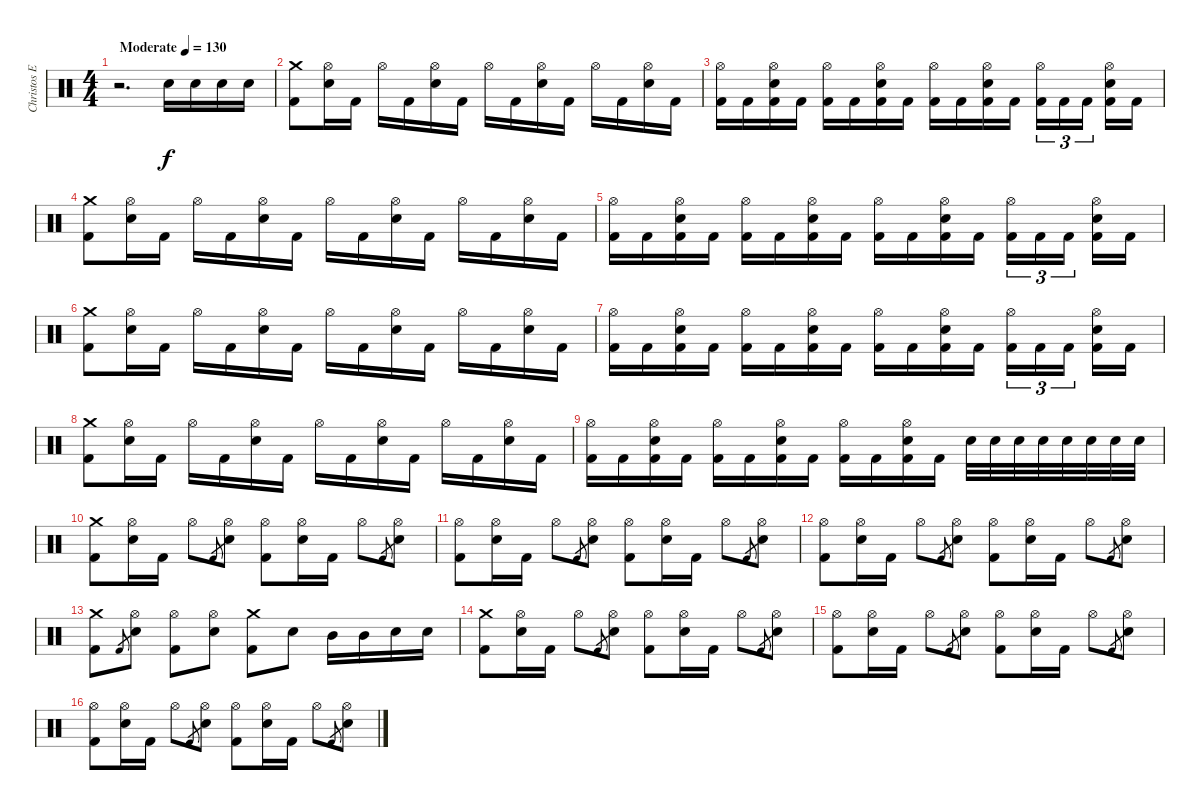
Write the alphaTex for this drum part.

\track ("Christos Efthimiadis" "Christos E") {instrument percussion}
\staff {score}
\articulation defaults
\ts (4 4)
\tempo (130 "Moderate")
\clef neutral
\ks c
r.2{d dy f} "Snare (hit) 2".16 "Snare (hit) 2".16 "Snare (hit) 2".16 "Snare (hit) 2".16 |
("Crash medium (hit)" "Kick (hit) 2").8 ("Hi-Hat (open)" "Snare (hit) 2").16 "Kick (hit) 2".16 "Hi-Hat (open)".16 "Kick (hit) 2".16 ("Hi-Hat (open)" "Snare (hit) 2").16 "Kick (hit) 2".16 "Hi-Hat (open)".16 "Kick (hit) 2".16 ("Hi-Hat (open)" "Snare (hit) 2").16 "Kick (hit) 2".16 "Hi-Hat (open)".16 "Kick (hit) 2".16 ("Hi-Hat (open)" "Snare (hit) 2").16 "Kick (hit) 2".16 |
("Hi-Hat (open)" "Kick (hit) 2").16 "Kick (hit) 2".16 ("Snare (hit) 2" "Hi-Hat (open)" "Kick (hit) 2").16 "Kick (hit) 2".16 ("Hi-Hat (open)" "Kick (hit) 2").16 "Kick (hit) 2".16 ("Snare (hit) 2" "Hi-Hat (open)" "Kick (hit) 2").16 "Kick (hit) 2".16 ("Hi-Hat (open)" "Kick (hit) 2").16 "Kick (hit) 2".16 ("Snare (hit) 2" "Hi-Hat (open)" "Kick (hit) 2").16 "Kick (hit) 2".16 ("Hi-Hat (open)" "Kick (hit) 2").16{tu (3 2)} "Kick (hit) 2".16{tu (3 2)} "Kick (hit) 2".16{tu (3 2) beam splitsecondary} ("Hi-Hat (open)" "Snare (hit) 2" "Kick (hit) 2").16 "Kick (hit) 2".16 |
("Crash medium (hit)" "Kick (hit) 2").8 ("Hi-Hat (open)" "Snare (hit) 2").16 "Kick (hit) 2".16 "Hi-Hat (open)".16 "Kick (hit) 2".16 ("Hi-Hat (open)" "Snare (hit) 2").16 "Kick (hit) 2".16 "Hi-Hat (open)".16 "Kick (hit) 2".16 ("Hi-Hat (open)" "Snare (hit) 2").16 "Kick (hit) 2".16 "Hi-Hat (open)".16 "Kick (hit) 2".16 ("Hi-Hat (open)" "Snare (hit) 2").16 "Kick (hit) 2".16 |
("Hi-Hat (open)" "Kick (hit) 2").16 "Kick (hit) 2".16 ("Snare (hit) 2" "Hi-Hat (open)" "Kick (hit) 2").16 "Kick (hit) 2".16 ("Hi-Hat (open)" "Kick (hit) 2").16 "Kick (hit) 2".16 ("Snare (hit) 2" "Hi-Hat (open)" "Kick (hit) 2").16 "Kick (hit) 2".16 ("Hi-Hat (open)" "Kick (hit) 2").16 "Kick (hit) 2".16 ("Snare (hit) 2" "Hi-Hat (open)" "Kick (hit) 2").16 "Kick (hit) 2".16 ("Hi-Hat (open)" "Kick (hit) 2").16{tu (3 2)} "Kick (hit) 2".16{tu (3 2)} "Kick (hit) 2".16{tu (3 2) beam splitsecondary} ("Hi-Hat (open)" "Snare (hit) 2" "Kick (hit) 2").16 "Kick (hit) 2".16 |
("Crash medium (hit)" "Kick (hit) 2").8 ("Hi-Hat (open)" "Snare (hit) 2").16 "Kick (hit) 2".16 "Hi-Hat (open)".16 "Kick (hit) 2".16 ("Hi-Hat (open)" "Snare (hit) 2").16 "Kick (hit) 2".16 "Hi-Hat (open)".16 "Kick (hit) 2".16 ("Hi-Hat (open)" "Snare (hit) 2").16 "Kick (hit) 2".16 "Hi-Hat (open)".16 "Kick (hit) 2".16 ("Hi-Hat (open)" "Snare (hit) 2").16 "Kick (hit) 2".16 |
("Hi-Hat (open)" "Kick (hit) 2").16 "Kick (hit) 2".16 ("Snare (hit) 2" "Hi-Hat (open)" "Kick (hit) 2").16 "Kick (hit) 2".16 ("Hi-Hat (open)" "Kick (hit) 2").16 "Kick (hit) 2".16 ("Snare (hit) 2" "Hi-Hat (open)" "Kick (hit) 2").16 "Kick (hit) 2".16 ("Hi-Hat (open)" "Kick (hit) 2").16 "Kick (hit) 2".16 ("Snare (hit) 2" "Hi-Hat (open)" "Kick (hit) 2").16 "Kick (hit) 2".16 ("Hi-Hat (open)" "Kick (hit) 2").16{tu (3 2)} "Kick (hit) 2".16{tu (3 2)} "Kick (hit) 2".16{tu (3 2) beam splitsecondary} ("Hi-Hat (open)" "Snare (hit) 2" "Kick (hit) 2").16 "Kick (hit) 2".16 |
("Crash medium (hit)" "Kick (hit) 2").8 ("Hi-Hat (open)" "Snare (hit) 2").16 "Kick (hit) 2".16 "Hi-Hat (open)".16 "Kick (hit) 2".16 ("Hi-Hat (open)" "Snare (hit) 2").16 "Kick (hit) 2".16 "Hi-Hat (open)".16 "Kick (hit) 2".16 ("Hi-Hat (open)" "Snare (hit) 2").16 "Kick (hit) 2".16 "Hi-Hat (open)".16 "Kick (hit) 2".16 ("Hi-Hat (open)" "Snare (hit) 2").16 "Kick (hit) 2".16 |
("Hi-Hat (open)" "Kick (hit) 2").16 "Kick (hit) 2".16 ("Snare (hit) 2" "Hi-Hat (open)" "Kick (hit) 2").16 "Kick (hit) 2".16 ("Hi-Hat (open)" "Kick (hit) 2").16 "Kick (hit) 2".16 ("Snare (hit) 2" "Hi-Hat (open)" "Kick (hit) 2").16 "Kick (hit) 2".16 ("Hi-Hat (open)" "Kick (hit) 2").16 "Kick (hit) 2".16 ("Snare (hit) 2" "Hi-Hat (open)" "Kick (hit) 2").16 "Kick (hit) 2".16 "Snare (hit) 2".32 "Snare (hit) 2".32 "Snare (hit) 2".32 "Snare (hit) 2".32 "Snare (hit) 2".32 "Snare (hit) 2".32 "Snare (hit) 2".32 "Snare (hit) 2".32 |
("Crash medium (hit)" "Kick (hit) 2").8 ("Hi-Hat (open)" "Snare (hit) 2").16 "Kick (hit) 2".16 "Hi-Hat (open)".8 "Kick (hit) 2".8{gr} ("Hi-Hat (open)" "Snare (hit) 2").8 ("Hi-Hat (open)" "Kick (hit) 2").8 ("Hi-Hat (open)" "Snare (hit) 2").16 "Kick (hit) 2".16 "Hi-Hat (open)".8 "Kick (hit) 2".8{gr} ("Hi-Hat (open)" "Snare (hit) 2").8 |
("Hi-Hat (open)" "Kick (hit) 2").8 ("Hi-Hat (open)" "Snare (hit) 2").16 "Kick (hit) 2".16 "Hi-Hat (open)".8 "Kick (hit) 2".8{gr} ("Hi-Hat (open)" "Snare (hit) 2").8 ("Hi-Hat (open)" "Kick (hit) 2").8 ("Hi-Hat (open)" "Snare (hit) 2").16 "Kick (hit) 2".16 "Hi-Hat (open)".8 "Kick (hit) 2".8{gr} ("Hi-Hat (open)" "Snare (hit) 2").8 |
("Hi-Hat (open)" "Kick (hit) 2").8 ("Hi-Hat (open)" "Snare (hit) 2").16 "Kick (hit) 2".16 "Hi-Hat (open)".8 "Kick (hit) 2".8{gr} ("Hi-Hat (open)" "Snare (hit) 2").8 ("Hi-Hat (open)" "Kick (hit) 2").8 ("Hi-Hat (open)" "Snare (hit) 2").16 "Kick (hit) 2".16 "Hi-Hat (open)".8 "Kick (hit) 2".8{gr} ("Hi-Hat (open)" "Snare (hit) 2").8 |
("Crash medium (hit)" "Kick (hit) 2").8 "Kick (hit) 2".8{gr} ("Hi-Hat (open)" "Snare (hit) 2").8 ("Hi-Hat (open)" "Kick (hit) 2").8 ("Hi-Hat (open)" "Snare (hit) 2").8 ("Crash medium (hit)" "Kick (hit) 2").8 "Snare (hit) 2".8 "Mid Tom (hit)".16 "Mid Tom (hit)".16 "Snare (hit) 2".16 "Snare (hit) 2".16 |
("Crash medium (hit)" "Kick (hit) 2").8 ("Hi-Hat (open)" "Snare (hit) 2").16 "Kick (hit) 2".16 "Hi-Hat (open)".8 "Kick (hit) 2".8{gr} ("Hi-Hat (open)" "Snare (hit) 2").8 ("Hi-Hat (open)" "Kick (hit) 2").8 ("Hi-Hat (open)" "Snare (hit) 2").16 "Kick (hit) 2".16 "Hi-Hat (open)".8 "Kick (hit) 2".8{gr} ("Hi-Hat (open)" "Snare (hit) 2").8 |
("Hi-Hat (open)" "Kick (hit) 2").8 ("Hi-Hat (open)" "Snare (hit) 2").16 "Kick (hit) 2".16 "Hi-Hat (open)".8 "Kick (hit) 2".8{gr} ("Hi-Hat (open)" "Snare (hit) 2").8 ("Hi-Hat (open)" "Kick (hit) 2").8 ("Hi-Hat (open)" "Snare (hit) 2").16 "Kick (hit) 2".16 "Hi-Hat (open)".8 "Kick (hit) 2".8{gr} ("Hi-Hat (open)" "Snare (hit) 2").8 |
("Hi-Hat (open)" "Kick (hit) 2").8 ("Hi-Hat (open)" "Snare (hit) 2").16 "Kick (hit) 2".16 "Hi-Hat (open)".8 "Kick (hit) 2".8{gr} ("Hi-Hat (open)" "Snare (hit) 2").8 ("Hi-Hat (open)" "Kick (hit) 2").8 ("Hi-Hat (open)" "Snare (hit) 2").16 "Kick (hit) 2".16 "Hi-Hat (open)".8 "Kick (hit) 2".8{gr} ("Hi-Hat (open)" "Snare (hit) 2").8
